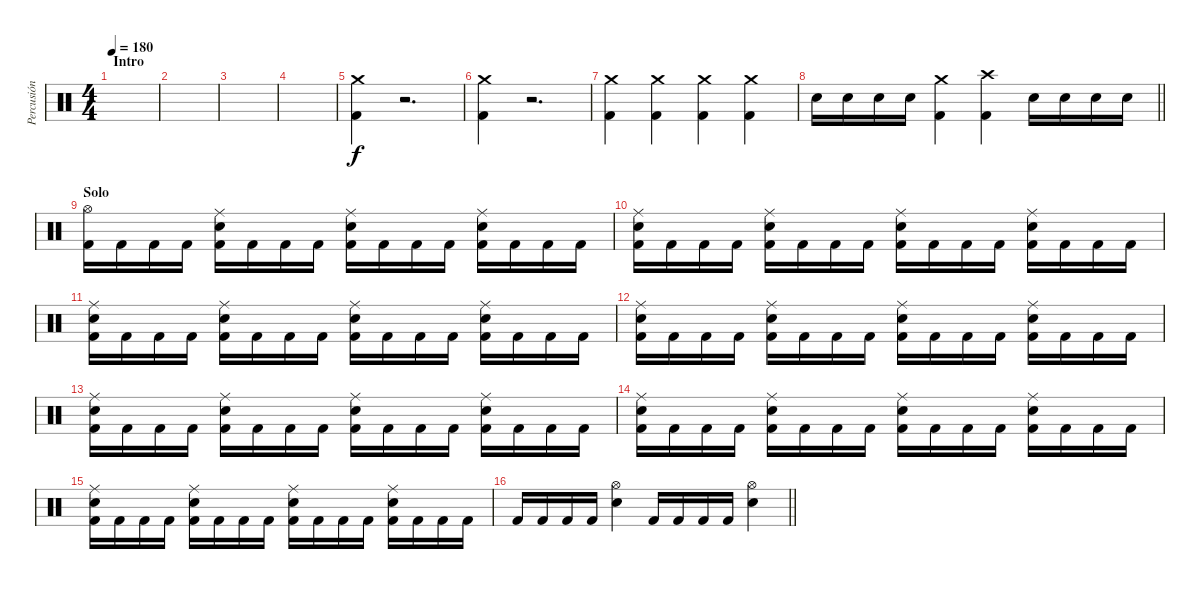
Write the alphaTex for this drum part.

\track ("Percusión" "Percusión") {instrument percussion}
\staff {score}
\articulation defaults
\ts (4 4)
\section ("" "Intro")
\tempo 180
\clef neutral
\ks c
|
|
|
|
("Crash medium (hit)" "Kick (hit) 2").4 r.2{d} |
("Crash medium (hit)" "Kick (hit) 2").4 r.2{d} |
("Crash medium (hit)" "Kick (hit) 2").4 ("Crash medium (hit)" "Kick (hit) 2").4 ("Crash medium (hit)" "Kick (hit) 2").4 ("Crash medium (hit)" "Kick (hit) 2").4 |
\barLineRight lightlight "Snare (hit) 2".16 "Snare (hit) 2".16 "Snare (hit) 2".16 "Snare (hit) 2".16
("Crash medium (hit)" "Kick (hit) 2").4 ("Crash high (hit)" "Kick (hit) 2").4 "Snare (hit) 2".16 "Snare (hit) 2".16 "Snare (hit) 2".16 "Snare (hit) 2".16 |
\section ("" "Solo")
("Hi-Hat (open)" "Kick (hit) 2").16 "Kick (hit) 2".16 "Kick (hit) 2".16 "Kick (hit) 2".16 ("Ride (middle)" "Snare (hit) 2" "Kick (hit) 2").16 "Kick (hit) 2".16 "Kick (hit) 2".16 "Kick (hit) 2".16 ("Ride (middle)" "Snare (hit) 2" "Kick (hit) 2").16 "Kick (hit) 2".16 "Kick (hit) 2".16 "Kick (hit) 2".16 ("Ride (middle)" "Snare (hit) 2" "Kick (hit) 2").16 "Kick (hit) 2".16 "Kick (hit) 2".16 "Kick (hit) 2".16 |
("Ride (middle)" "Snare (hit) 2" "Kick (hit) 2").16 "Kick (hit) 2".16 "Kick (hit) 2".16 "Kick (hit) 2".16 ("Ride (middle)" "Snare (hit) 2" "Kick (hit) 2").16 "Kick (hit) 2".16 "Kick (hit) 2".16 "Kick (hit) 2".16 ("Ride (middle)" "Snare (hit) 2" "Kick (hit) 2").16 "Kick (hit) 2".16 "Kick (hit) 2".16 "Kick (hit) 2".16 ("Ride (middle)" "Snare (hit) 2" "Kick (hit) 2").16 "Kick (hit) 2".16 "Kick (hit) 2".16 "Kick (hit) 2".16 |
("Ride (middle)" "Snare (hit) 2" "Kick (hit) 2").16 "Kick (hit) 2".16 "Kick (hit) 2".16 "Kick (hit) 2".16 ("Ride (middle)" "Snare (hit) 2" "Kick (hit) 2").16 "Kick (hit) 2".16 "Kick (hit) 2".16 "Kick (hit) 2".16 ("Ride (middle)" "Snare (hit) 2" "Kick (hit) 2").16 "Kick (hit) 2".16 "Kick (hit) 2".16 "Kick (hit) 2".16 ("Ride (middle)" "Snare (hit) 2" "Kick (hit) 2").16 "Kick (hit) 2".16 "Kick (hit) 2".16 "Kick (hit) 2".16 |
("Ride (middle)" "Snare (hit) 2" "Kick (hit) 2").16 "Kick (hit) 2".16 "Kick (hit) 2".16 "Kick (hit) 2".16 ("Ride (middle)" "Snare (hit) 2" "Kick (hit) 2").16 "Kick (hit) 2".16 "Kick (hit) 2".16 "Kick (hit) 2".16 ("Ride (middle)" "Snare (hit) 2" "Kick (hit) 2").16 "Kick (hit) 2".16 "Kick (hit) 2".16 "Kick (hit) 2".16 ("Ride (middle)" "Snare (hit) 2" "Kick (hit) 2").16 "Kick (hit) 2".16 "Kick (hit) 2".16 "Kick (hit) 2".16 |
("Ride (middle)" "Snare (hit) 2" "Kick (hit) 2").16 "Kick (hit) 2".16 "Kick (hit) 2".16 "Kick (hit) 2".16 ("Ride (middle)" "Snare (hit) 2" "Kick (hit) 2").16 "Kick (hit) 2".16 "Kick (hit) 2".16 "Kick (hit) 2".16 ("Ride (middle)" "Snare (hit) 2" "Kick (hit) 2").16 "Kick (hit) 2".16 "Kick (hit) 2".16 "Kick (hit) 2".16 ("Ride (middle)" "Snare (hit) 2" "Kick (hit) 2").16 "Kick (hit) 2".16 "Kick (hit) 2".16 "Kick (hit) 2".16 |
("Ride (middle)" "Snare (hit) 2" "Kick (hit) 2").16 "Kick (hit) 2".16 "Kick (hit) 2".16 "Kick (hit) 2".16 ("Ride (middle)" "Snare (hit) 2" "Kick (hit) 2").16 "Kick (hit) 2".16 "Kick (hit) 2".16 "Kick (hit) 2".16 ("Ride (middle)" "Snare (hit) 2" "Kick (hit) 2").16 "Kick (hit) 2".16 "Kick (hit) 2".16 "Kick (hit) 2".16 ("Ride (middle)" "Snare (hit) 2" "Kick (hit) 2").16 "Kick (hit) 2".16 "Kick (hit) 2".16 "Kick (hit) 2".16 |
("Ride (middle)" "Snare (hit) 2" "Kick (hit) 2").16 "Kick (hit) 2".16 "Kick (hit) 2".16 "Kick (hit) 2".16 ("Ride (middle)" "Snare (hit) 2" "Kick (hit) 2").16 "Kick (hit) 2".16 "Kick (hit) 2".16 "Kick (hit) 2".16 ("Ride (middle)" "Snare (hit) 2" "Kick (hit) 2").16 "Kick (hit) 2".16 "Kick (hit) 2".16 "Kick (hit) 2".16 ("Ride (middle)" "Snare (hit) 2" "Kick (hit) 2").16 "Kick (hit) 2".16 "Kick (hit) 2".16 "Kick (hit) 2".16 |
\barLineRight lightlight "Kick (hit) 2".16 "Kick (hit) 2".16 "Kick (hit) 2".16 "Kick (hit) 2".16
("Hi-Hat (open)" "Snare (hit) 2").4 "Kick (hit) 2".16 "Kick (hit) 2".16 "Kick (hit) 2".16 "Kick (hit) 2".16 ("Hi-Hat (open)" "Snare (hit) 2").4
